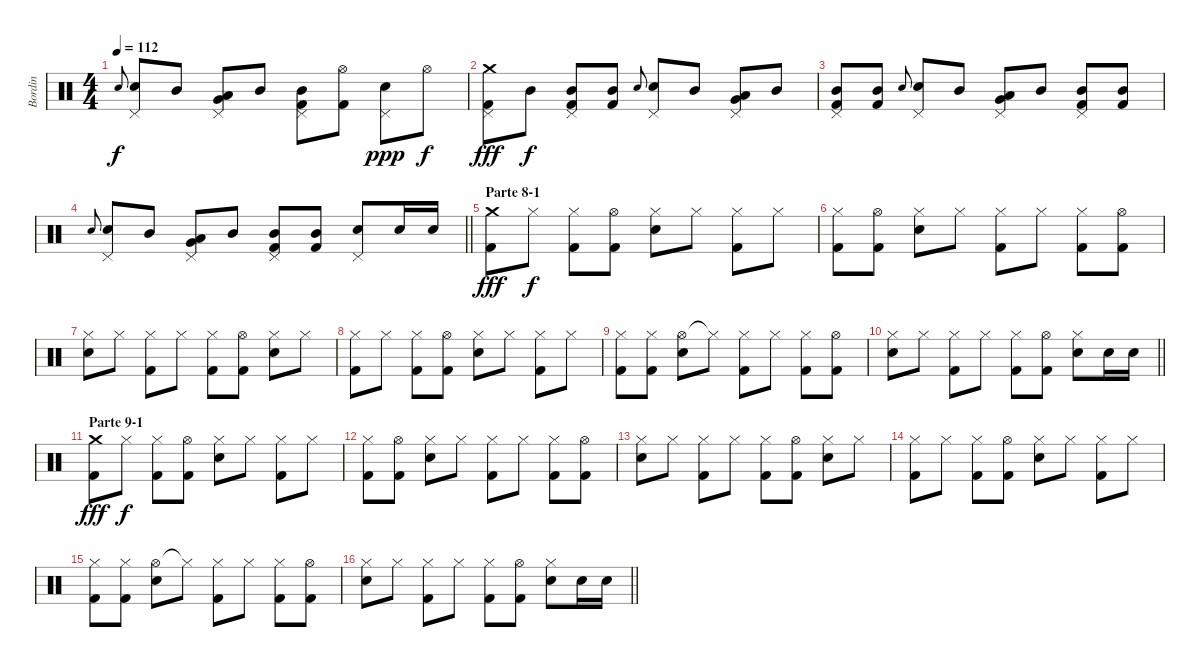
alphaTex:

\track ("Bordin" "Bordin") {instrument percussion}
\staff {score}
\articulation defaults
\ts (4 4)
\tempo 112
\clef neutral
\ks c "Electric Snare (hit)".8{gr onbeat dy f}
("Pedal Hi-Hat (hit)" "Electric Snare (hit)").8 "Mid Tom (hit)".8 ("Low Tom (hit)" "Very Low Tom (hit)" "Pedal Hi-Hat (hit)").8 "Mid Tom (hit)".8 ("Mid Tom (hit)" "Pedal Hi-Hat (hit)" "Kick (hit) 2").8 ("Hi-Hat (open)" "Kick (hit) 2").8 ("Pedal Hi-Hat (hit)" "Electric Snare (hit)").8{dy ppp} "Hi-Hat (open)".8{dy f} |
("Crash medium (hit)" "Pedal Hi-Hat (hit)" "Kick (hit) 2").8{dy fff} "Mid Tom (hit)".8{dy f} ("Mid Tom (hit)" "Pedal Hi-Hat (hit)" "Kick (hit) 2").8 ("Mid Tom (hit)" "Kick (hit) 2").8 "Electric Snare (hit)".8{gr onbeat} ("Pedal Hi-Hat (hit)" "Electric Snare (hit)").8 "Mid Tom (hit)".8 ("Low Tom (hit)" "Very Low Tom (hit)" "Pedal Hi-Hat (hit)").8 "Mid Tom (hit)".8 |
("Mid Tom (hit)" "Pedal Hi-Hat (hit)" "Kick (hit) 2").8 ("Mid Tom (hit)" "Kick (hit) 2").8 "Electric Snare (hit)".8{gr onbeat} ("Pedal Hi-Hat (hit)" "Electric Snare (hit)").8 "Mid Tom (hit)".8 ("Low Tom (hit)" "Very Low Tom (hit)" "Pedal Hi-Hat (hit)").8 "Mid Tom (hit)".8 ("Mid Tom (hit)" "Pedal Hi-Hat (hit)" "Kick (hit) 2").8 ("Mid Tom (hit)" "Kick (hit) 2").8 |
\barLineRight lightlight "Electric Snare (hit)".8{gr onbeat}
("Pedal Hi-Hat (hit)" "Electric Snare (hit)").8 "Mid Tom (hit)".8 ("Low Tom (hit)" "Very Low Tom (hit)" "Pedal Hi-Hat (hit)").8 "Mid Tom (hit)".8 ("Mid Tom (hit)" "Pedal Hi-Hat (hit)" "Kick (hit) 2").8 ("Mid Tom (hit)" "Kick (hit) 2").8 ("Pedal Hi-Hat (hit)" "Electric Snare (hit)").8 "Electric Snare (hit)".16 "Electric Snare (hit)".16 |
\section ("" "Parte 8-1")
("Crash medium (hit)" "Kick (hit) 2").8{dy fff} "Hi-Hat (closed)".8{dy f} ("Hi-Hat (closed)" "Kick (hit) 2").8 ("Hi-Hat (open)" "Kick (hit) 2").8 ("Hi-Hat (closed)" "Electric Snare (hit)").8 "Hi-Hat (closed)".8 ("Hi-Hat (closed)" "Kick (hit) 2").8 "Hi-Hat (closed)".8 |
("Hi-Hat (closed)" "Kick (hit) 2").8 ("Hi-Hat (open)" "Kick (hit) 2").8 ("Hi-Hat (closed)" "Electric Snare (hit)").8 "Hi-Hat (closed)".8 ("Hi-Hat (closed)" "Kick (hit) 2").8 "Hi-Hat (closed)".8 ("Hi-Hat (closed)" "Kick (hit) 2").8 ("Hi-Hat (open)" "Kick (hit) 2").8 |
("Hi-Hat (closed)" "Electric Snare (hit)").8 "Hi-Hat (closed)".8 ("Hi-Hat (closed)" "Kick (hit) 2").8 "Hi-Hat (closed)".8 ("Hi-Hat (closed)" "Kick (hit) 2").8 ("Hi-Hat (open)" "Kick (hit) 2").8 ("Hi-Hat (closed)" "Electric Snare (hit)").8 "Hi-Hat (closed)".8 |
("Hi-Hat (closed)" "Kick (hit) 2").8 "Hi-Hat (closed)".8 ("Hi-Hat (closed)" "Kick (hit) 2").8 ("Hi-Hat (open)" "Kick (hit) 2").8 ("Hi-Hat (closed)" "Electric Snare (hit)").8 "Hi-Hat (closed)".8 ("Hi-Hat (closed)" "Kick (hit) 2").8 "Hi-Hat (closed)".8 |
("Hi-Hat (closed)" "Kick (hit) 2").8 ("Hi-Hat (closed)" "Kick (hit) 2").8 ("Hi-Hat (open)" "Electric Snare (hit)").8 "Hi-Hat (closed)"{t}.8 ("Hi-Hat (closed)" "Kick (hit) 2").8 "Hi-Hat (closed)".8 ("Hi-Hat (closed)" "Kick (hit) 2").8 ("Hi-Hat (open)" "Kick (hit) 2").8 |
\barLineRight lightlight
("Hi-Hat (closed)" "Electric Snare (hit)").8 "Hi-Hat (closed)".8 ("Hi-Hat (closed)" "Kick (hit) 2").8 "Hi-Hat (closed)".8 ("Hi-Hat (closed)" "Kick (hit) 2").8 ("Hi-Hat (open)" "Kick (hit) 2").8 ("Hi-Hat (closed)" "Electric Snare (hit)").8 "Electric Snare (hit)".16 "Electric Snare (hit)".16 |
\section ("" "Parte 9-1")
("Crash medium (hit)" "Kick (hit) 2").8{dy fff} "Hi-Hat (closed)".8{dy f} ("Hi-Hat (closed)" "Kick (hit) 2").8 ("Hi-Hat (open)" "Kick (hit) 2").8 ("Hi-Hat (closed)" "Electric Snare (hit)").8 "Hi-Hat (closed)".8 ("Hi-Hat (closed)" "Kick (hit) 2").8 "Hi-Hat (closed)".8 |
("Hi-Hat (closed)" "Kick (hit) 2").8 ("Hi-Hat (open)" "Kick (hit) 2").8 ("Hi-Hat (closed)" "Electric Snare (hit)").8 "Hi-Hat (closed)".8 ("Hi-Hat (closed)" "Kick (hit) 2").8 "Hi-Hat (closed)".8 ("Hi-Hat (closed)" "Kick (hit) 2").8 ("Hi-Hat (open)" "Kick (hit) 2").8 |
("Hi-Hat (closed)" "Electric Snare (hit)").8 "Hi-Hat (closed)".8 ("Hi-Hat (closed)" "Kick (hit) 2").8 "Hi-Hat (closed)".8 ("Hi-Hat (closed)" "Kick (hit) 2").8 ("Hi-Hat (open)" "Kick (hit) 2").8 ("Hi-Hat (closed)" "Electric Snare (hit)").8 "Hi-Hat (closed)".8 |
("Hi-Hat (closed)" "Kick (hit) 2").8 "Hi-Hat (closed)".8 ("Hi-Hat (closed)" "Kick (hit) 2").8 ("Hi-Hat (open)" "Kick (hit) 2").8 ("Hi-Hat (closed)" "Electric Snare (hit)").8 "Hi-Hat (closed)".8 ("Hi-Hat (closed)" "Kick (hit) 2").8 "Hi-Hat (closed)".8 |
("Hi-Hat (closed)" "Kick (hit) 2").8 ("Hi-Hat (closed)" "Kick (hit) 2").8 ("Hi-Hat (open)" "Electric Snare (hit)").8 "Hi-Hat (closed)"{t}.8 ("Hi-Hat (closed)" "Kick (hit) 2").8 "Hi-Hat (closed)".8 ("Hi-Hat (closed)" "Kick (hit) 2").8 ("Hi-Hat (open)" "Kick (hit) 2").8 |
\barLineRight lightlight
("Hi-Hat (closed)" "Electric Snare (hit)").8 "Hi-Hat (closed)".8 ("Hi-Hat (closed)" "Kick (hit) 2").8 "Hi-Hat (closed)".8 ("Hi-Hat (closed)" "Kick (hit) 2").8 ("Hi-Hat (open)" "Kick (hit) 2").8 ("Hi-Hat (closed)" "Electric Snare (hit)").8 "Electric Snare (hit)".16 "Electric Snare (hit)".16
